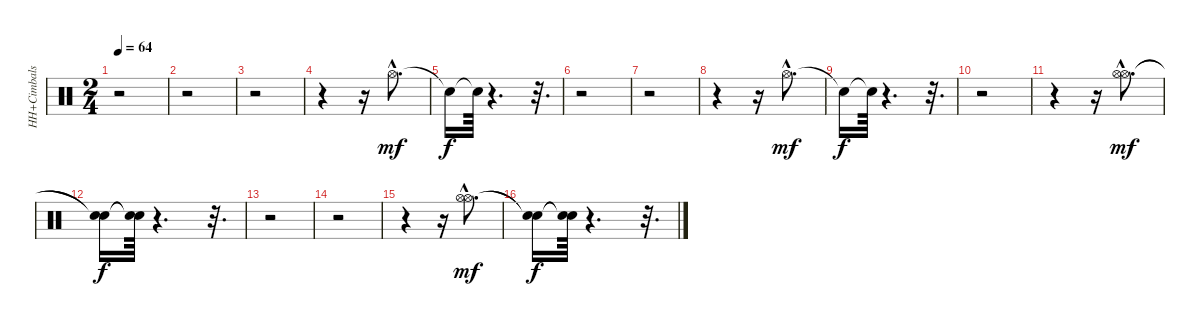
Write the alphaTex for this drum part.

\track ("HH+Cimbals" "HH+Cimbals") {instrument percussion}
\staff {score}
\articulation defaults
\ts (2 4)
\tempo 64
\clef neutral
\ks c
r.2{dy f} |
r.2 |
r.2 |
r.4 r.16 "Hi-Hat (open)"{hac}.8{d dy mf} |
"Snare (hit)"{t}.16{dy f} "Snare (hit)"{t}.64 r.4{d} r.32{d} |
r.2 |
r.2 |
r.4 r.16 "Hi-Hat (open)"{hac}.8{d dy mf} |
"Snare (hit)"{t}.16{dy f} "Snare (hit)"{t}.64 r.4{d} r.32{d} |
r.2 |
r.4 r.16 ("Hi-Hat (open)"{hac} "Hi-Hat (open)"{hac}).8{d dy mf} |
("Snare (hit)"{t} "Snare (hit)"{t}).16{dy f} ("Snare (hit)"{t} "Snare (hit)"{t}).64 r.4{d} r.32{d} |
r.2 |
r.2 |
r.4 r.16 ("Hi-Hat (open)"{hac} "Hi-Hat (open)"{hac}).8{d dy mf} |
("Snare (hit)"{t} "Snare (hit)"{t}).16{dy f} ("Snare (hit)"{t} "Snare (hit)"{t}).64 r.4{d} r.32{d}
